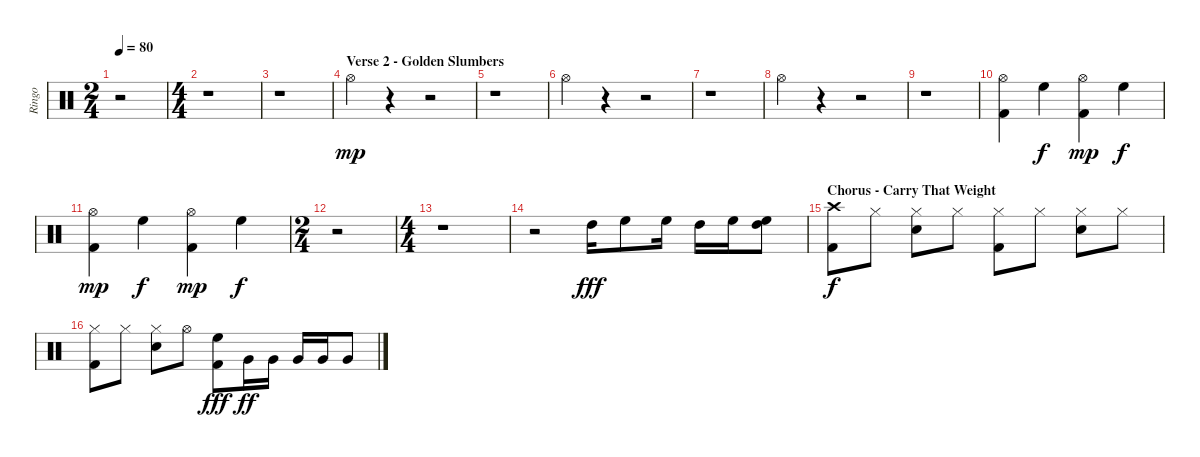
\track ("Ringo" "Ringo") {instrument percussion}
\staff {score}
\articulation defaults
\ts (2 4)
\tempo 80
\clef neutral
\ks c
r.2{dy ff} |
\ts (4 4)
r.1 |
r.1 |
\section ("" "Verse 2 - Golden Slumbers")
"Hi-Hat (open)".4{dy mp} r.4 r.2 |
r.1 |
"Hi-Hat (open)".4 r.4 r.2 |
r.1 |
"Hi-Hat (open)".4 r.4 r.2 |
r.1 |
("Hi-Hat (open)" "Kick (hit) 2").4 "High Floor Tom (hit)".4{dy f} ("Hi-Hat (open)" "Kick (hit) 2").4{dy mp} "High Floor Tom (hit)".4{dy f} |
("Hi-Hat (open)" "Kick (hit) 2").4{dy mp} "High Floor Tom (hit)".4{dy f} ("Hi-Hat (open)" "Kick (hit) 2").4{dy mp} "High Floor Tom (hit)".4{dy f} |
\ts (2 4)
r.2 |
\ts (4 4)
r.1 |
r.2 "High Tom (hit)".16{dy fff volume 16 balance 14} "High Floor Tom (hit)".8 "High Floor Tom (hit)".16 "High Tom (hit)".16 "High Floor Tom (hit)".16 ("High Floor Tom (hit)" "High Tom (hit)").8 |
\section ("" "Chorus - Carry That Weight")
("Crash high (hit)" "Kick (hit) 2").8{dy f} "Hi-Hat (closed)".8 ("Hi-Hat (closed)" "Snare (hit) 2").8 "Hi-Hat (closed)".8 ("Hi-Hat (closed)" "Kick (hit) 2").8 "Hi-Hat (closed)".8 ("Hi-Hat (closed)" "Snare (hit) 2").8 "Hi-Hat (closed)".8 |
("Hi-Hat (closed)" "Kick (hit) 2").8 "Hi-Hat (closed)".8 ("Hi-Hat (closed)" "Snare (hit) 2").8 "Hi-Hat (open)".8 ("High Floor Tom (hit)" "Kick (hit) 2").8{dy fff} "Very Low Tom (hit)".16{dy ff} "Very Low Tom (hit)".16 "Very Low Tom (hit)".16 "Very Low Tom (hit)".16 "Very Low Tom (hit)".8
